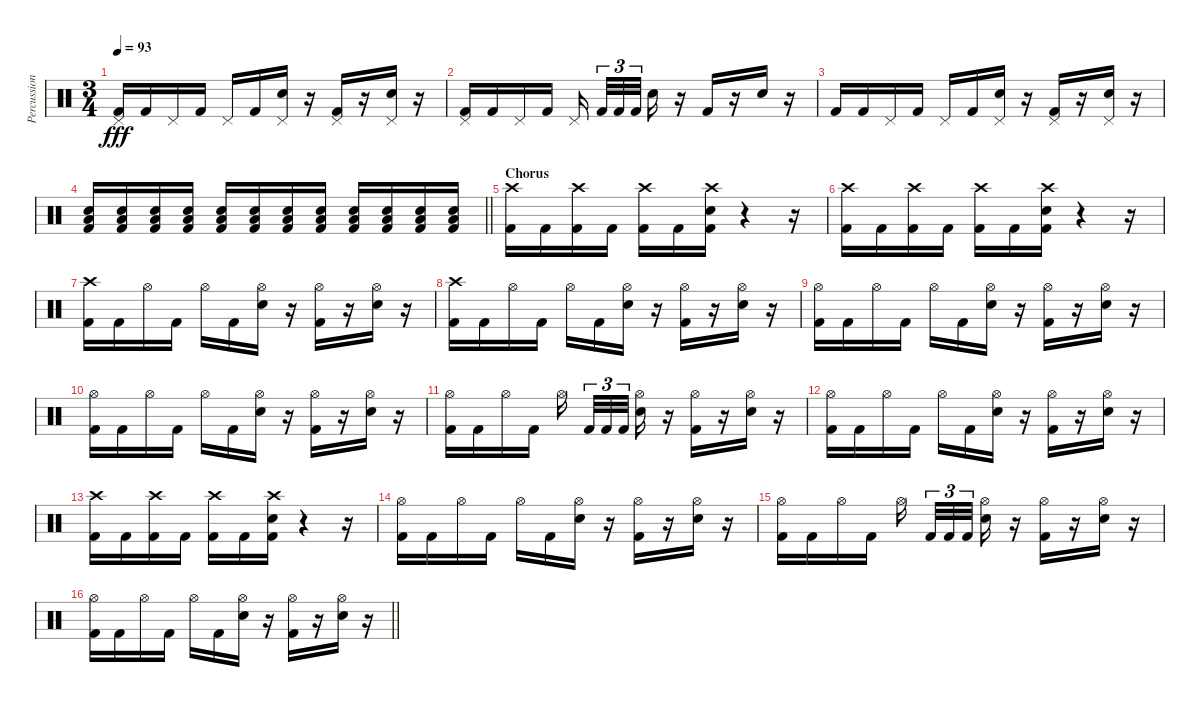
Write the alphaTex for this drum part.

\track ("Percussion" "Percussion") {instrument percussion}
\staff {score}
\articulation defaults
\ts (3 4)
\tempo 93
\clef neutral
\ks c
("Pedal Hi-Hat (hit)" "Kick (hit) 2").16{dy fff} "Kick (hit) 2".16 "Pedal Hi-Hat (hit)".16 "Kick (hit) 2".16 "Pedal Hi-Hat (hit)".16 "Kick (hit) 2".16 ("Pedal Hi-Hat (hit)" "Snare (hit) 2").16 r.16 ("Pedal Hi-Hat (hit)" "Kick (hit) 2").16 r.16 ("Pedal Hi-Hat (hit)" "Snare (hit) 2").16 r.16 |
("Pedal Hi-Hat (hit)" "Kick (hit) 2").16 "Kick (hit) 2".16 "Pedal Hi-Hat (hit)".16 "Kick (hit) 2".16 "Pedal Hi-Hat (hit)".16{beam splitsecondary} "Kick (hit) 2".32{tu (3 2)} "Kick (hit) 2".32{tu (3 2)} "Kick (hit) 2".32{tu (3 2) beam splitsecondary} "Snare (hit) 2".16 r.16 "Kick (hit) 2".16 r.16 "Snare (hit) 2".16 r.16 |
"Kick (hit) 2".16 "Kick (hit) 2".16 "Pedal Hi-Hat (hit)".16 "Kick (hit) 2".16 "Pedal Hi-Hat (hit)".16 "Kick (hit) 2".16 ("Pedal Hi-Hat (hit)" "Snare (hit) 2").16 r.16 ("Pedal Hi-Hat (hit)" "Kick (hit) 2").16 r.16 ("Pedal Hi-Hat (hit)" "Snare (hit) 2").16 r.16 |
\barLineRight lightlight
("Low Floor Tom (hit)" "Snare (hit) 2" "Kick (hit) 2").16 ("Low Floor Tom (hit)" "Snare (hit) 2" "Kick (hit) 2").16 ("Low Floor Tom (hit)" "Snare (hit) 2" "Kick (hit) 2").16 ("Low Floor Tom (hit)" "Snare (hit) 2" "Kick (hit) 2").16 ("Low Floor Tom (hit)" "Snare (hit) 2" "Kick (hit) 2").16 ("Low Floor Tom (hit)" "Snare (hit) 2" "Kick (hit) 2").16 ("Low Floor Tom (hit)" "Snare (hit) 2" "Kick (hit) 2").16 ("Low Floor Tom (hit)" "Snare (hit) 2" "Kick (hit) 2").16 ("Low Floor Tom (hit)" "Snare (hit) 2" "Kick (hit) 2").16 ("Low Floor Tom (hit)" "Snare (hit) 2" "Kick (hit) 2").16 ("Low Floor Tom (hit)" "Snare (hit) 2" "Kick (hit) 2").16 ("Low Floor Tom (hit)" "Snare (hit) 2" "Kick (hit) 2").16 |
\section ("" "Chorus")
("Crash high (hit)" "Kick (hit) 2").16 "Kick (hit) 2".16 ("Crash high (hit)" "Kick (hit) 2").16 "Kick (hit) 2".16 ("Crash high (hit)" "Kick (hit) 2").16 "Kick (hit) 2".16 ("Crash high (hit)" "Snare (hit) 2" "Kick (hit) 2").16 r.4 r.16 |
("Crash high (hit)" "Kick (hit) 2").16 "Kick (hit) 2".16 ("Crash high (hit)" "Kick (hit) 2").16 "Kick (hit) 2".16 ("Crash high (hit)" "Kick (hit) 2").16 "Kick (hit) 2".16 ("Crash high (hit)" "Snare (hit) 2" "Kick (hit) 2").16 r.4 r.16 |
("Crash high (hit)" "Kick (hit) 2").16 "Kick (hit) 2".16 "Hi-Hat (open)".16 "Kick (hit) 2".16 "Hi-Hat (open)".16 "Kick (hit) 2".16 ("Hi-Hat (open)" "Snare (hit) 2").16 r.16 ("Hi-Hat (open)" "Kick (hit) 2").16 r.16 ("Hi-Hat (open)" "Snare (hit) 2").16 r.16 |
("Crash high (hit)" "Kick (hit) 2").16 "Kick (hit) 2".16 "Hi-Hat (open)".16 "Kick (hit) 2".16 "Hi-Hat (open)".16 "Kick (hit) 2".16 ("Hi-Hat (open)" "Snare (hit) 2").16 r.16 ("Hi-Hat (open)" "Kick (hit) 2").16 r.16 ("Hi-Hat (open)" "Snare (hit) 2").16 r.16 |
("Hi-Hat (open)" "Kick (hit) 2").16 "Kick (hit) 2".16 "Hi-Hat (open)".16 "Kick (hit) 2".16 "Hi-Hat (open)".16 "Kick (hit) 2".16 ("Hi-Hat (open)" "Snare (hit) 2").16 r.16 ("Hi-Hat (open)" "Kick (hit) 2").16 r.16 ("Hi-Hat (open)" "Snare (hit) 2").16 r.16 |
("Hi-Hat (open)" "Kick (hit) 2").16 "Kick (hit) 2".16 "Hi-Hat (open)".16 "Kick (hit) 2".16 "Hi-Hat (open)".16 "Kick (hit) 2".16 ("Hi-Hat (open)" "Snare (hit) 2").16 r.16 ("Hi-Hat (open)" "Kick (hit) 2").16 r.16 ("Hi-Hat (open)" "Snare (hit) 2").16 r.16 |
("Hi-Hat (open)" "Kick (hit) 2").16 "Kick (hit) 2".16 "Hi-Hat (open)".16 "Kick (hit) 2".16 "Hi-Hat (open)".16{beam splitsecondary} "Kick (hit) 2".32{tu (3 2)} "Kick (hit) 2".32{tu (3 2)} "Kick (hit) 2".32{tu (3 2) beam splitsecondary} ("Hi-Hat (open)" "Snare (hit) 2").16 r.16 ("Hi-Hat (open)" "Kick (hit) 2").16 r.16 ("Hi-Hat (open)" "Snare (hit) 2").16 r.16 |
("Hi-Hat (open)" "Kick (hit) 2").16 "Kick (hit) 2".16 "Hi-Hat (open)".16 "Kick (hit) 2".16 "Hi-Hat (open)".16 "Kick (hit) 2".16 ("Hi-Hat (open)" "Snare (hit) 2").16 r.16 ("Hi-Hat (open)" "Kick (hit) 2").16 r.16 ("Hi-Hat (open)" "Snare (hit) 2").16 r.16 |
("Crash high (hit)" "Kick (hit) 2").16 "Kick (hit) 2".16 ("Crash high (hit)" "Kick (hit) 2").16 "Kick (hit) 2".16 ("Crash high (hit)" "Kick (hit) 2").16 "Kick (hit) 2".16 ("Crash high (hit)" "Snare (hit) 2" "Kick (hit) 2").16 r.4 r.16 |
("Hi-Hat (open)" "Kick (hit) 2").16 "Kick (hit) 2".16 "Hi-Hat (open)".16 "Kick (hit) 2".16 "Hi-Hat (open)".16 "Kick (hit) 2".16 ("Hi-Hat (open)" "Snare (hit) 2").16 r.16 ("Hi-Hat (open)" "Kick (hit) 2").16 r.16 ("Hi-Hat (open)" "Snare (hit) 2").16 r.16 |
("Hi-Hat (open)" "Kick (hit) 2").16 "Kick (hit) 2".16 "Hi-Hat (open)".16 "Kick (hit) 2".16 "Hi-Hat (open)".16{beam splitsecondary} "Kick (hit) 2".32{tu (3 2)} "Kick (hit) 2".32{tu (3 2)} "Kick (hit) 2".32{tu (3 2) beam splitsecondary} ("Hi-Hat (open)" "Snare (hit) 2").16 r.16 ("Hi-Hat (open)" "Kick (hit) 2").16 r.16 ("Hi-Hat (open)" "Snare (hit) 2").16 r.16 |
\barLineRight lightlight
("Hi-Hat (open)" "Kick (hit) 2").16 "Kick (hit) 2".16 "Hi-Hat (open)".16 "Kick (hit) 2".16 "Hi-Hat (open)".16 "Kick (hit) 2".16 ("Hi-Hat (open)" "Snare (hit) 2").16 r.16 ("Hi-Hat (open)" "Kick (hit) 2").16 r.16 ("Hi-Hat (open)" "Snare (hit) 2").16 r.16
